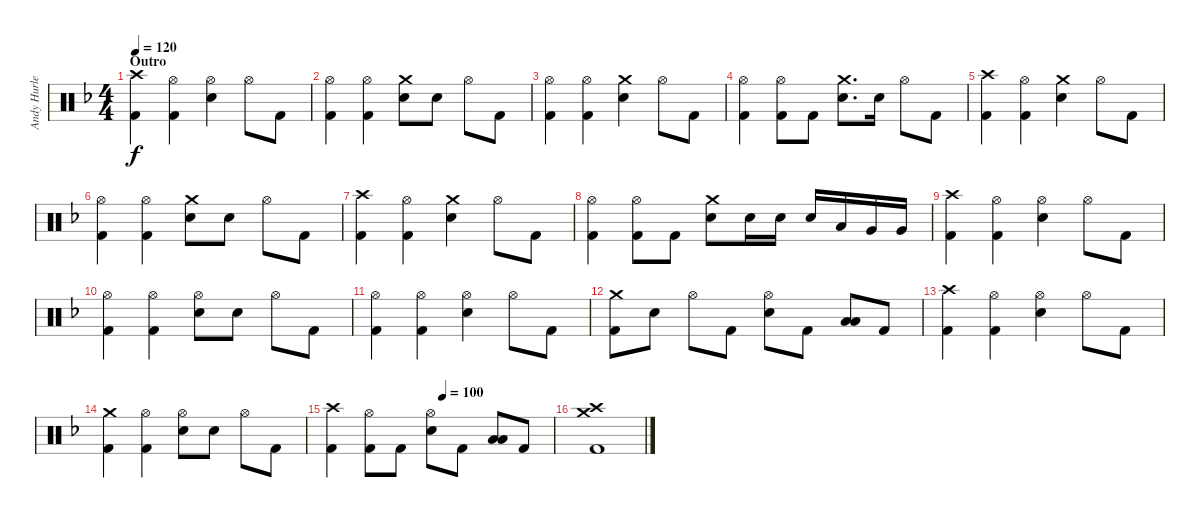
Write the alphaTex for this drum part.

\track ("Andy Hurley" "Andy Hurle") {instrument percussion}
\staff {score}
\articulation defaults
\ts (4 4)
\section ("" "Outro")
\tempo 120
\clef neutral
\ks dminor
("Crash high (hit)" "Kick (hit) 2").4{dy f} ("Hi-Hat (open)" "Kick (hit) 2").4 ("Hi-Hat (open)" "Snare (hit) 2").4 "Hi-Hat (open)".8 "Kick (hit) 2".8 |
("Hi-Hat (open)" "Kick (hit) 2").4 ("Hi-Hat (open)" "Kick (hit) 2").4 ("Crash medium (hit)" "Snare (hit) 2").8 "Snare (hit) 2".8 "Hi-Hat (open)".8 "Kick (hit) 2".8 |
("Hi-Hat (open)" "Kick (hit) 2").4 ("Hi-Hat (open)" "Kick (hit) 2").4 ("Crash medium (hit)" "Snare (hit) 2").4 "Hi-Hat (open)".8 "Kick (hit) 2".8 |
("Hi-Hat (open)" "Kick (hit) 2").4 ("Hi-Hat (open)" "Kick (hit) 2").8 "Kick (hit) 2".8 ("Crash medium (hit)" "Snare (hit) 2").8{d} "Snare (hit) 2".16 "Hi-Hat (open)".8 "Kick (hit) 2".8 |
("Crash high (hit)" "Kick (hit) 2").4 ("Hi-Hat (open)" "Kick (hit) 2").4 ("Crash medium (hit)" "Snare (hit) 2").4 "Hi-Hat (open)".8 "Kick (hit) 2".8 |
("Hi-Hat (open)" "Kick (hit) 2").4 ("Hi-Hat (open)" "Kick (hit) 2").4 ("Crash medium (hit)" "Snare (hit) 2").8 "Snare (hit) 2".8 "Hi-Hat (open)".8 "Kick (hit) 2".8 |
("Crash high (hit)" "Kick (hit) 2").4 ("Hi-Hat (open)" "Kick (hit) 2").4 ("Crash medium (hit)" "Snare (hit) 2").4 "Hi-Hat (open)".8 "Kick (hit) 2".8 |
("Hi-Hat (open)" "Kick (hit) 2").4 ("Hi-Hat (open)" "Kick (hit) 2").8 "Kick (hit) 2".8 ("Crash medium (hit)" "Snare (hit) 2").8 "Snare (hit) 2".16 "Snare (hit) 2".16 "Snare (hit) 2".16 "Low Tom (hit)".16 "Very Low Tom (hit)".16 "Very Low Tom (hit)".16 |
("Crash high (hit)" "Kick (hit) 2").4 ("Hi-Hat (open)" "Kick (hit) 2").4 ("Hi-Hat (open)" "Snare (hit) 2").4 "Hi-Hat (open)".8 "Kick (hit) 2".8 |
("Hi-Hat (open)" "Kick (hit) 2").4 ("Hi-Hat (open)" "Kick (hit) 2").4 ("Hi-Hat (open)" "Snare (hit) 2").8 "Snare (hit) 2".8 "Hi-Hat (open)".8 "Kick (hit) 2".8 |
("Hi-Hat (open)" "Kick (hit) 2").4 ("Hi-Hat (open)" "Kick (hit) 2").4 ("Hi-Hat (open)" "Snare (hit) 2").4 "Hi-Hat (open)".8 "Kick (hit) 2".8 |
("Crash medium (hit)" "Kick (hit) 2").8 "Snare (hit) 2".8 "Hi-Hat (open)".8 "Kick (hit) 2".8 ("Hi-Hat (open)" "Snare (hit) 2").8 "Kick (hit) 2".8 ("Low Tom (hit)" "Low Floor Tom (hit)").8 "Kick (hit) 2".8 |
("Crash high (hit)" "Kick (hit) 2").4 ("Hi-Hat (open)" "Kick (hit) 2").4 ("Hi-Hat (open)" "Snare (hit) 2").4 "Hi-Hat (open)".8 "Kick (hit) 2".8 |
("Crash medium (hit)" "Kick (hit) 2").4 ("Hi-Hat (open)" "Kick (hit) 2").4 ("Hi-Hat (open)" "Snare (hit) 2").8 "Snare (hit) 2".8 "Hi-Hat (open)".8 "Kick (hit) 2".8 |
\tempo (100 0.5)
("Crash high (hit)" "Kick (hit) 2").4 ("Hi-Hat (open)" "Kick (hit) 2").8 "Kick (hit) 2".8 ("Hi-Hat (open)" "Snare (hit) 2").8 "Kick (hit) 2".8 ("Low Tom (hit)" "Low Floor Tom (hit)").8 "Kick (hit) 2".8 |
("Crash high (hit)" "Crash medium (hit)" "Kick (hit) 2").1
